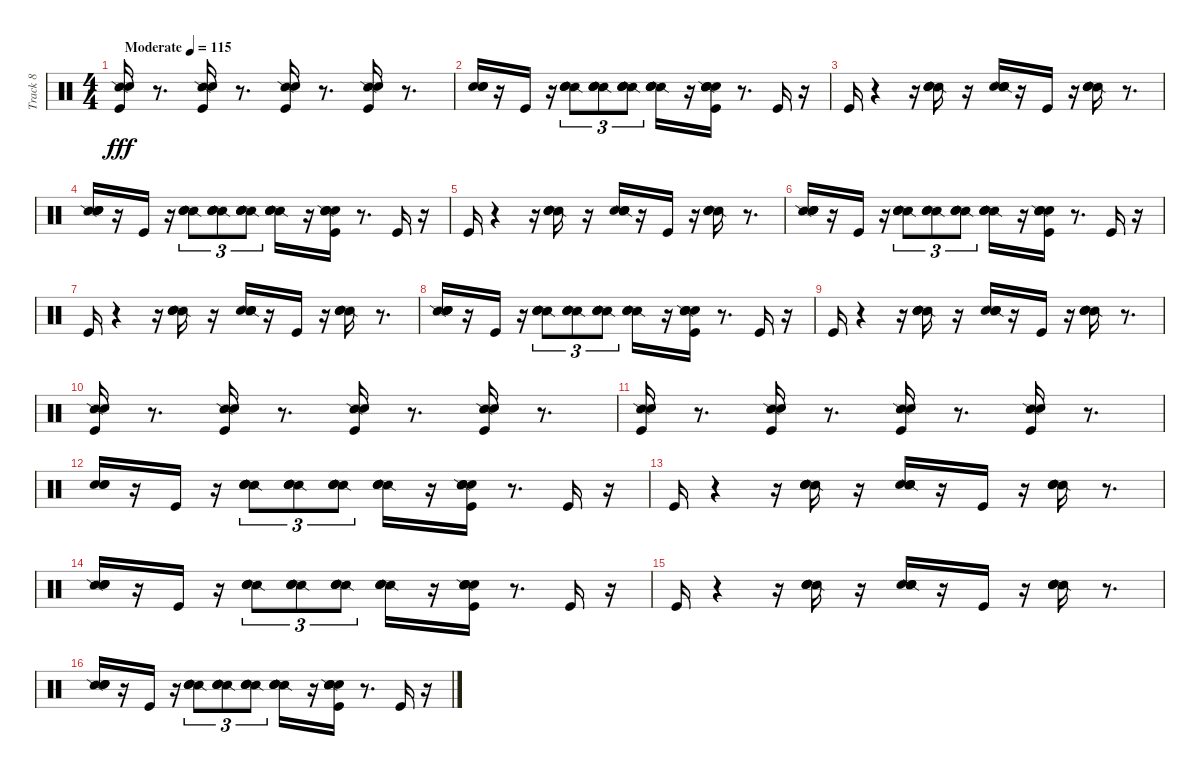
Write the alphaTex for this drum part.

\track ("Track 8" "Track 8") {instrument percussion}
\staff {score}
\articulation defaults
\ts (4 4)
\tempo (115 "Moderate")
\clef neutral
\ks c
("Snare (side stick) 2" "Metronome (bell)" "Kick (hit)").16{dy fff} r.8{d} ("Snare (side stick) 2" "Metronome (bell)" "Kick (hit)").16 r.8{d} ("Snare (side stick) 2" "Metronome (bell)" "Kick (hit)").16 r.8{d} ("Snare (side stick) 2" "Metronome (bell)" "Kick (hit)").16 r.8{d} |
("Metronome (bell)" "Snare (hit) 2" "Electric Snare (hit)").16 r.16 "Kick (hit)".16 r.16 ("Snare (side stick) 2" "Metronome (bell)" "Snare (hit) 2" "Electric Snare (hit)").8{tu (3 2)} ("Snare (side stick) 2" "Metronome (bell)" "Snare (hit) 2" "Electric Snare (hit)").8{tu (3 2)} ("Snare (side stick) 2" "Metronome (bell)" "Snare (hit) 2" "Electric Snare (hit)").8{tu (3 2)} ("Snare (side stick) 2" "Metronome (bell)" "Snare (hit) 2" "Electric Snare (hit)").16 r.16 ("Electric Snare (hit)" "Snare (hit) 2" "Metronome (bell)" "Snare (side stick) 2" "Kick (hit)").16 r.8{d} "Kick (hit)".16 r.16 |
"Kick (hit)".16 r.4 r.16 ("Snare (side stick) 2" "Metronome (bell)" "Snare (hit) 2" "Electric Snare (hit)").16 r.16 ("Electric Snare (hit)" "Snare (hit) 2" "Metronome (bell)" "Snare (side stick) 2").16 r.16 "Kick (hit)".16 r.16 ("Snare (side stick) 2" "Metronome (bell)" "Snare (hit) 2" "Electric Snare (hit)").16 r.8{d} |
("Snare (side stick) 2" "Metronome (bell)" "Snare (hit) 2" "Electric Snare (hit)").16 r.16 "Kick (hit)".16 r.16 ("Snare (side stick) 2" "Metronome (bell)" "Snare (hit) 2" "Electric Snare (hit)").8{tu (3 2)} ("Snare (side stick) 2" "Metronome (bell)" "Snare (hit) 2" "Electric Snare (hit)").8{tu (3 2)} ("Snare (side stick) 2" "Metronome (bell)" "Snare (hit) 2" "Electric Snare (hit)").8{tu (3 2)} ("Snare (side stick) 2" "Metronome (bell)" "Snare (hit) 2" "Electric Snare (hit)").16 r.16 ("Electric Snare (hit)" "Snare (hit) 2" "Metronome (bell)" "Snare (side stick) 2" "Kick (hit)").16 r.8{d} "Kick (hit)".16 r.16 |
"Kick (hit)".16 r.4 r.16 ("Snare (side stick) 2" "Metronome (bell)" "Snare (hit) 2" "Electric Snare (hit)").16 r.16 ("Electric Snare (hit)" "Snare (hit) 2" "Metronome (bell)" "Snare (side stick) 2").16 r.16 "Kick (hit)".16 r.16 ("Snare (side stick) 2" "Metronome (bell)" "Snare (hit) 2" "Electric Snare (hit)").16 r.8{d} |
("Snare (side stick) 2" "Metronome (bell)" "Snare (hit) 2" "Electric Snare (hit)").16 r.16 "Kick (hit)".16 r.16 ("Snare (side stick) 2" "Metronome (bell)" "Snare (hit) 2" "Electric Snare (hit)").8{tu (3 2)} ("Snare (side stick) 2" "Metronome (bell)" "Snare (hit) 2" "Electric Snare (hit)").8{tu (3 2)} ("Snare (side stick) 2" "Metronome (bell)" "Snare (hit) 2" "Electric Snare (hit)").8{tu (3 2)} ("Snare (side stick) 2" "Metronome (bell)" "Snare (hit) 2" "Electric Snare (hit)").16 r.16 ("Electric Snare (hit)" "Snare (hit) 2" "Metronome (bell)" "Snare (side stick) 2" "Kick (hit)").16 r.8{d} "Kick (hit)".16 r.16 |
"Kick (hit)".16 r.4 r.16 ("Snare (side stick) 2" "Metronome (bell)" "Snare (hit) 2" "Electric Snare (hit)").16 r.16 ("Electric Snare (hit)" "Snare (hit) 2" "Metronome (bell)" "Snare (side stick) 2").16 r.16 "Kick (hit)".16 r.16 ("Snare (side stick) 2" "Metronome (bell)" "Snare (hit) 2" "Electric Snare (hit)").16 r.8{d} |
("Snare (side stick) 2" "Metronome (bell)" "Snare (hit) 2" "Electric Snare (hit)").16 r.16 "Kick (hit)".16 r.16 ("Snare (side stick) 2" "Metronome (bell)" "Snare (hit) 2" "Electric Snare (hit)").8{tu (3 2)} ("Snare (side stick) 2" "Metronome (bell)" "Snare (hit) 2" "Electric Snare (hit)").8{tu (3 2)} ("Snare (side stick) 2" "Metronome (bell)" "Snare (hit) 2" "Electric Snare (hit)").8{tu (3 2)} ("Snare (side stick) 2" "Metronome (bell)" "Snare (hit) 2" "Electric Snare (hit)").16 r.16 ("Electric Snare (hit)" "Snare (hit) 2" "Metronome (bell)" "Snare (side stick) 2" "Kick (hit)").16 r.8{d} "Kick (hit)".16 r.16 |
"Kick (hit)".16 r.4 r.16 ("Snare (side stick) 2" "Metronome (bell)" "Snare (hit) 2" "Electric Snare (hit)").16 r.16 ("Electric Snare (hit)" "Snare (hit) 2" "Metronome (bell)" "Snare (side stick) 2").16 r.16 "Kick (hit)".16 r.16 ("Snare (side stick) 2" "Metronome (bell)" "Snare (hit) 2" "Electric Snare (hit)").16 r.8{d} |
("Snare (side stick) 2" "Metronome (bell)" "Kick (hit)").16 r.8{d} ("Snare (side stick) 2" "Metronome (bell)" "Kick (hit)").16 r.8{d} ("Snare (side stick) 2" "Metronome (bell)" "Kick (hit)").16 r.8{d} ("Snare (side stick) 2" "Metronome (bell)" "Kick (hit)").16 r.8{d} |
("Snare (side stick) 2" "Metronome (bell)" "Kick (hit)").16 r.8{d} ("Snare (side stick) 2" "Metronome (bell)" "Kick (hit)").16 r.8{d} ("Snare (side stick) 2" "Metronome (bell)" "Kick (hit)").16 r.8{d} ("Snare (side stick) 2" "Metronome (bell)" "Kick (hit)").16 r.8{d} |
("Metronome (bell)" "Snare (hit) 2" "Electric Snare (hit)").16 r.16 "Kick (hit)".16 r.16 ("Snare (side stick) 2" "Metronome (bell)" "Snare (hit) 2" "Electric Snare (hit)").8{tu (3 2)} ("Snare (side stick) 2" "Metronome (bell)" "Snare (hit) 2" "Electric Snare (hit)").8{tu (3 2)} ("Snare (side stick) 2" "Metronome (bell)" "Snare (hit) 2" "Electric Snare (hit)").8{tu (3 2)} ("Snare (side stick) 2" "Metronome (bell)" "Snare (hit) 2" "Electric Snare (hit)").16 r.16 ("Electric Snare (hit)" "Snare (hit) 2" "Metronome (bell)" "Snare (side stick) 2" "Kick (hit)").16 r.8{d} "Kick (hit)".16 r.16 |
"Kick (hit)".16 r.4 r.16 ("Snare (side stick) 2" "Metronome (bell)" "Snare (hit) 2" "Electric Snare (hit)").16 r.16 ("Electric Snare (hit)" "Snare (hit) 2" "Metronome (bell)" "Snare (side stick) 2").16 r.16 "Kick (hit)".16 r.16 ("Snare (side stick) 2" "Metronome (bell)" "Snare (hit) 2" "Electric Snare (hit)").16 r.8{d} |
("Snare (side stick) 2" "Metronome (bell)" "Snare (hit) 2" "Electric Snare (hit)").16 r.16 "Kick (hit)".16 r.16 ("Snare (side stick) 2" "Metronome (bell)" "Snare (hit) 2" "Electric Snare (hit)").8{tu (3 2)} ("Snare (side stick) 2" "Metronome (bell)" "Snare (hit) 2" "Electric Snare (hit)").8{tu (3 2)} ("Snare (side stick) 2" "Metronome (bell)" "Snare (hit) 2" "Electric Snare (hit)").8{tu (3 2)} ("Snare (side stick) 2" "Metronome (bell)" "Snare (hit) 2" "Electric Snare (hit)").16 r.16 ("Electric Snare (hit)" "Snare (hit) 2" "Metronome (bell)" "Snare (side stick) 2" "Kick (hit)").16 r.8{d} "Kick (hit)".16 r.16 |
"Kick (hit)".16 r.4 r.16 ("Snare (side stick) 2" "Metronome (bell)" "Snare (hit) 2" "Electric Snare (hit)").16 r.16 ("Electric Snare (hit)" "Snare (hit) 2" "Metronome (bell)" "Snare (side stick) 2").16 r.16 "Kick (hit)".16 r.16 ("Snare (side stick) 2" "Metronome (bell)" "Snare (hit) 2" "Electric Snare (hit)").16 r.8{d} |
("Snare (side stick) 2" "Metronome (bell)" "Snare (hit) 2" "Electric Snare (hit)").16 r.16 "Kick (hit)".16 r.16 ("Snare (side stick) 2" "Metronome (bell)" "Snare (hit) 2" "Electric Snare (hit)").8{tu (3 2)} ("Snare (side stick) 2" "Metronome (bell)" "Snare (hit) 2" "Electric Snare (hit)").8{tu (3 2)} ("Snare (side stick) 2" "Metronome (bell)" "Snare (hit) 2" "Electric Snare (hit)").8{tu (3 2)} ("Snare (side stick) 2" "Metronome (bell)" "Snare (hit) 2" "Electric Snare (hit)").16 r.16 ("Electric Snare (hit)" "Snare (hit) 2" "Metronome (bell)" "Snare (side stick) 2" "Kick (hit)").16 r.8{d} "Kick (hit)".16 r.16
